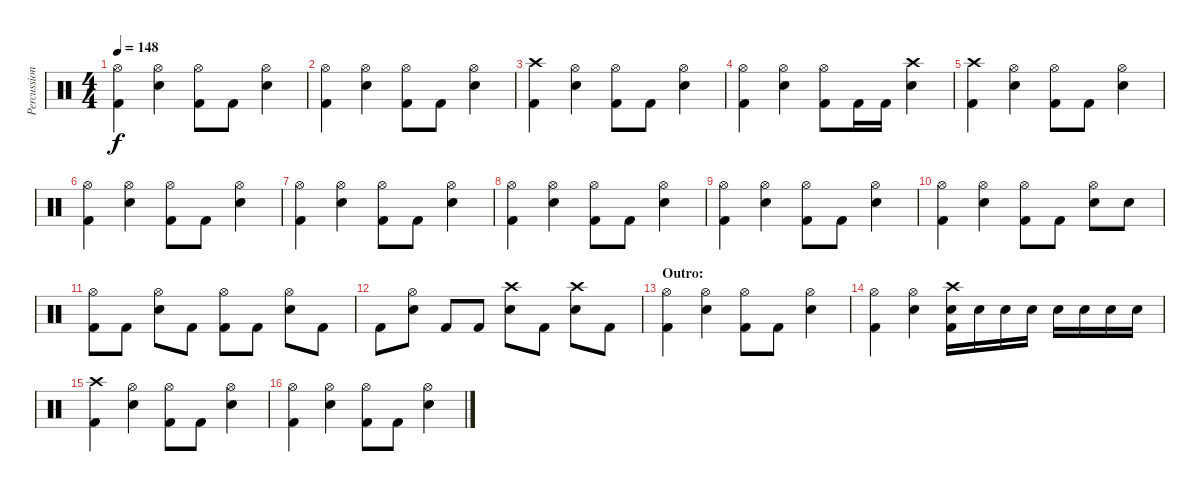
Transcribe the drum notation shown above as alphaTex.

\track ("Percussion" "Percussion") {instrument percussion}
\staff {score}
\articulation defaults
\ts (4 4)
\tempo 148
\clef neutral
\ks c
("Hi-Hat (open)" "Kick (hit) 2").4{dy f} ("Hi-Hat (open)" "Electric Snare (hit)").4 ("Hi-Hat (open)" "Kick (hit) 2").8 "Kick (hit) 2".8 ("Hi-Hat (open)" "Electric Snare (hit)").4 |
("Hi-Hat (open)" "Kick (hit) 2").4 ("Hi-Hat (open)" "Electric Snare (hit)").4 ("Hi-Hat (open)" "Kick (hit) 2").8 "Kick (hit) 2".8 ("Hi-Hat (open)" "Electric Snare (hit)").4 |
("Crash high (hit)" "Kick (hit) 2").4 ("Hi-Hat (open)" "Electric Snare (hit)").4 ("Hi-Hat (open)" "Kick (hit) 2").8 "Kick (hit) 2".8 ("Hi-Hat (open)" "Electric Snare (hit)").4 |
("Hi-Hat (open)" "Kick (hit) 2").4 ("Hi-Hat (open)" "Electric Snare (hit)").4 ("Hi-Hat (open)" "Kick (hit) 2").8 "Kick (hit) 2".16 "Kick (hit) 2".16 ("Crash high (hit)" "Electric Snare (hit)").4 |
("Crash high (hit)" "Kick (hit) 2").4 ("Hi-Hat (open)" "Electric Snare (hit)").4 ("Hi-Hat (open)" "Kick (hit) 2").8 "Kick (hit) 2".8 ("Hi-Hat (open)" "Electric Snare (hit)").4 |
("Hi-Hat (open)" "Kick (hit) 2").4 ("Hi-Hat (open)" "Electric Snare (hit)").4 ("Hi-Hat (open)" "Kick (hit) 2").8 "Kick (hit) 2".8 ("Hi-Hat (open)" "Electric Snare (hit)").4 |
("Hi-Hat (open)" "Kick (hit) 2").4 ("Hi-Hat (open)" "Electric Snare (hit)").4 ("Hi-Hat (open)" "Kick (hit) 2").8 "Kick (hit) 2".8 ("Hi-Hat (open)" "Electric Snare (hit)").4 |
("Hi-Hat (open)" "Kick (hit) 2").4 ("Hi-Hat (open)" "Electric Snare (hit)").4 ("Hi-Hat (open)" "Kick (hit) 2").8 "Kick (hit) 2".8 ("Hi-Hat (open)" "Electric Snare (hit)").4 |
("Hi-Hat (open)" "Kick (hit) 2").4 ("Hi-Hat (open)" "Electric Snare (hit)").4 ("Hi-Hat (open)" "Kick (hit) 2").8 "Kick (hit) 2".8 ("Hi-Hat (open)" "Electric Snare (hit)").4 |
("Hi-Hat (open)" "Kick (hit) 2").4 ("Hi-Hat (open)" "Electric Snare (hit)").4 ("Hi-Hat (open)" "Kick (hit) 2").8 "Kick (hit) 2".8 ("Hi-Hat (open)" "Electric Snare (hit)").8 "Electric Snare (hit)".8 |
("Hi-Hat (open)" "Kick (hit) 2").8 "Kick (hit) 2".8 ("Hi-Hat (open)" "Electric Snare (hit)").8 "Kick (hit) 2".8 ("Hi-Hat (open)" "Kick (hit) 2").8 "Kick (hit) 2".8 ("Hi-Hat (open)" "Electric Snare (hit)").8 "Kick (hit) 2".8 |
"Kick (hit) 2".8 ("Hi-Hat (open)" "Electric Snare (hit)").8 "Kick (hit) 2".8 "Kick (hit) 2".8 ("Crash high (hit)" "Electric Snare (hit)").8 "Kick (hit) 2".8 ("Crash high (hit)" "Electric Snare (hit)").8 "Kick (hit) 2".8 |
\section ("" "Outro:")
("Hi-Hat (open)" "Kick (hit) 2").4 ("Hi-Hat (open)" "Electric Snare (hit)").4 ("Hi-Hat (open)" "Kick (hit) 2").8 "Kick (hit) 2".8 ("Hi-Hat (open)" "Electric Snare (hit)").4 |
("Hi-Hat (open)" "Kick (hit) 2").4 ("Hi-Hat (open)" "Electric Snare (hit)").4 ("Crash high (hit)" "Electric Snare (hit)" "Kick (hit) 2").16 "Electric Snare (hit)".16 "Electric Snare (hit)".16 "Electric Snare (hit)".16 "Electric Snare (hit)".16 "Electric Snare (hit)".16 "Electric Snare (hit)".16 "Electric Snare (hit)".16 |
("Crash high (hit)" "Kick (hit) 2").4 ("Hi-Hat (open)" "Electric Snare (hit)").4 ("Hi-Hat (open)" "Kick (hit) 2").8 "Kick (hit) 2".8 ("Hi-Hat (open)" "Electric Snare (hit)").4 |
("Hi-Hat (open)" "Kick (hit) 2").4 ("Hi-Hat (open)" "Electric Snare (hit)").4 ("Hi-Hat (open)" "Kick (hit) 2").8 "Kick (hit) 2".8 ("Hi-Hat (open)" "Electric Snare (hit)").4
